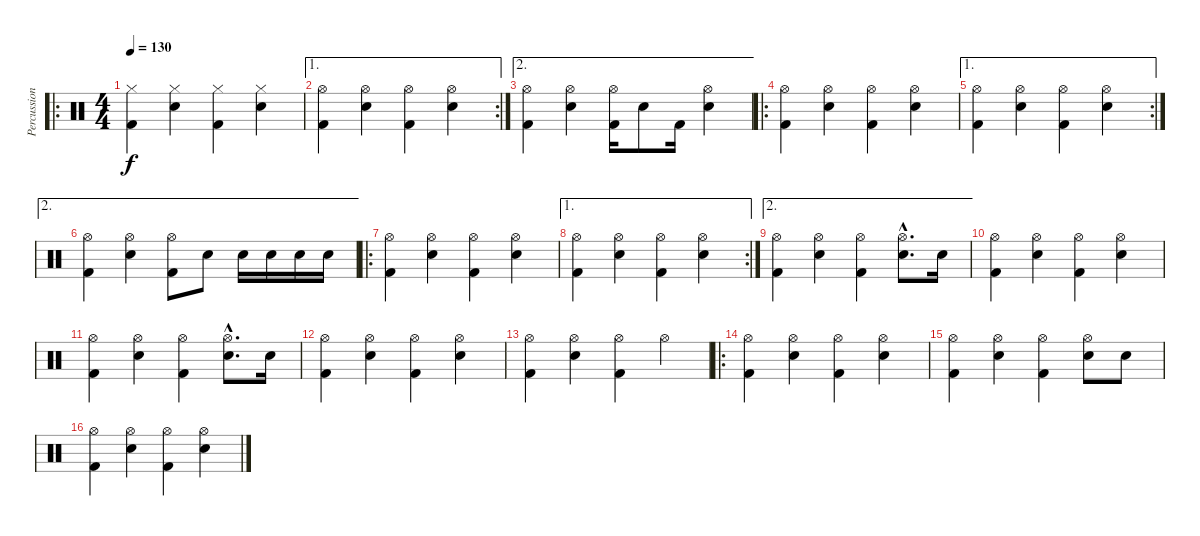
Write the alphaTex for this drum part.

\track ("Percussion" "Percussion") {instrument percussion}
\staff {score}
\articulation defaults
\ro
\ts (4 4)
\tempo 130
\clef neutral
\ks c
("Hi-Hat (closed)" "Kick (hit) 2").4{dy f} ("Hi-Hat (closed)" "Electric Snare (hit)").4 ("Hi-Hat (closed)" "Kick (hit) 2").4 ("Hi-Hat (closed)" "Electric Snare (hit)").4 |
\ae 1
\rc 2
("Hi-Hat (open)" "Kick (hit) 2").4 ("Hi-Hat (open)" "Electric Snare (hit)").4 ("Hi-Hat (open)" "Kick (hit) 2").4 ("Hi-Hat (open)" "Electric Snare (hit)").4 |
\ae 2
("Hi-Hat (open)" "Kick (hit) 2").4 ("Hi-Hat (open)" "Electric Snare (hit)").4 ("Hi-Hat (open)" "Kick (hit) 2").16 "Electric Snare (hit)".8 "Kick (hit) 2".16 ("Hi-Hat (open)" "Electric Snare (hit)").4 |
\ro
("Hi-Hat (open)" "Kick (hit) 2").4 ("Hi-Hat (open)" "Electric Snare (hit)").4 ("Hi-Hat (open)" "Kick (hit) 2").4 ("Hi-Hat (open)" "Electric Snare (hit)").4 |
\ae 1
\rc 2
("Hi-Hat (open)" "Kick (hit) 2").4 ("Hi-Hat (open)" "Electric Snare (hit)").4 ("Hi-Hat (open)" "Kick (hit) 2").4 ("Hi-Hat (open)" "Electric Snare (hit)").4 |
\ae 2
("Hi-Hat (open)" "Kick (hit) 2").4 ("Hi-Hat (open)" "Electric Snare (hit)").4 ("Hi-Hat (open)" "Kick (hit) 2").8 "Electric Snare (hit)".8 "Electric Snare (hit)".16 "Electric Snare (hit)".16 "Electric Snare (hit)".16 "Electric Snare (hit)".16 |
\ro
("Hi-Hat (open)" "Kick (hit) 2").4 ("Hi-Hat (open)" "Electric Snare (hit)").4 ("Hi-Hat (open)" "Kick (hit) 2").4 ("Hi-Hat (open)" "Electric Snare (hit)").4 |
\ae 1
\rc 2
("Hi-Hat (open)" "Kick (hit) 2").4 ("Hi-Hat (open)" "Electric Snare (hit)").4 ("Hi-Hat (open)" "Kick (hit) 2").4 ("Hi-Hat (open)" "Electric Snare (hit)").4 |
\ae 2
("Hi-Hat (open)" "Kick (hit) 2").4 ("Hi-Hat (open)" "Electric Snare (hit)").4 ("Hi-Hat (open)" "Kick (hit) 2").4 ("Hi-Hat (open)"{hac} "Electric Snare (hit)"{hac}).8{d} "Electric Snare (hit)".16 |
("Hi-Hat (open)" "Kick (hit) 2").4 ("Hi-Hat (open)" "Electric Snare (hit)").4 ("Hi-Hat (open)" "Kick (hit) 2").4 ("Hi-Hat (open)" "Electric Snare (hit)").4 |
("Hi-Hat (open)" "Kick (hit) 2").4 ("Hi-Hat (open)" "Electric Snare (hit)").4 ("Hi-Hat (open)" "Kick (hit) 2").4 ("Hi-Hat (open)"{hac} "Electric Snare (hit)"{hac}).8{d} "Electric Snare (hit)".16 |
("Hi-Hat (open)" "Kick (hit) 2").4 ("Hi-Hat (open)" "Electric Snare (hit)").4 ("Hi-Hat (open)" "Kick (hit) 2").4 ("Hi-Hat (open)" "Electric Snare (hit)").4 |
("Hi-Hat (open)" "Kick (hit) 2").4 ("Hi-Hat (open)" "Electric Snare (hit)").4 ("Hi-Hat (open)" "Kick (hit) 2").4 "Hi-Hat (open)".4 |
\ro
("Hi-Hat (open)" "Kick (hit) 2").4 ("Hi-Hat (open)" "Electric Snare (hit)").4 ("Hi-Hat (open)" "Kick (hit) 2").4 ("Hi-Hat (open)" "Electric Snare (hit)").4 |
("Hi-Hat (open)" "Kick (hit) 2").4 ("Hi-Hat (open)" "Electric Snare (hit)").4 ("Hi-Hat (open)" "Kick (hit) 2").4 ("Hi-Hat (open)" "Electric Snare (hit)").8 "Electric Snare (hit)".8 |
("Hi-Hat (open)" "Kick (hit) 2").4 ("Hi-Hat (open)" "Electric Snare (hit)").4 ("Hi-Hat (open)" "Kick (hit) 2").4 ("Hi-Hat (open)" "Electric Snare (hit)").4
